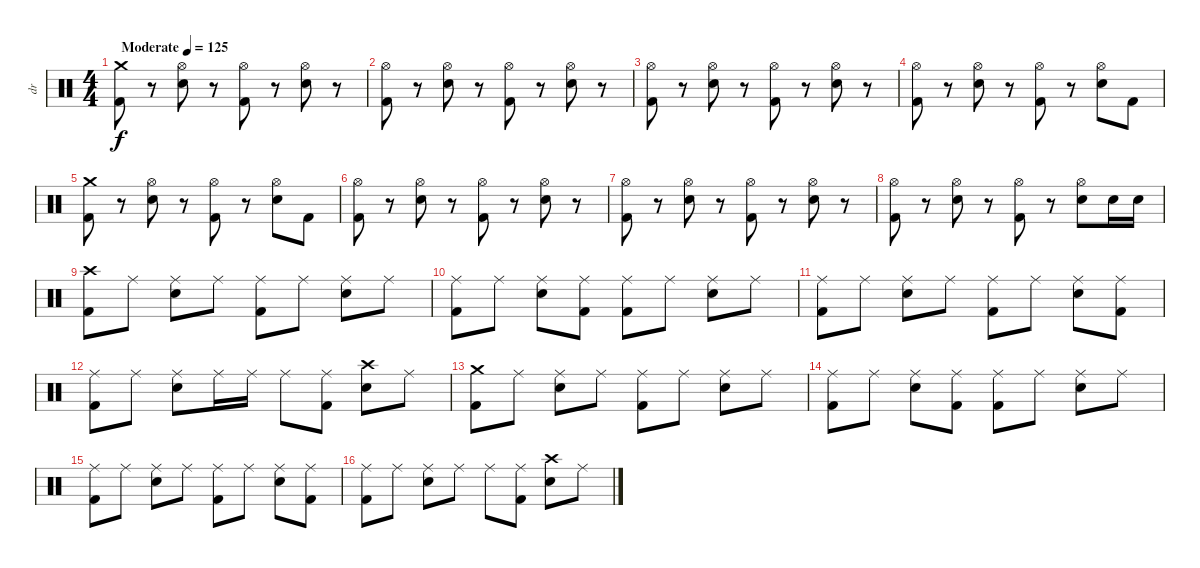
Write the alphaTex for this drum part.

\track ("dr" "dr") {instrument percussion}
\staff {score}
\articulation defaults
\ts (4 4)
\tempo (125 "Moderate")
\clef neutral
\ks c
("Crash medium (hit)" "Kick (hit) 2").8{dy f} r.8 ("Hi-Hat (open)" "Snare (hit) 2").8 r.8 ("Hi-Hat (open)" "Kick (hit) 2").8 r.8 ("Hi-Hat (open)" "Snare (hit) 2").8 r.8 |
("Hi-Hat (open)" "Kick (hit) 2").8 r.8 ("Hi-Hat (open)" "Snare (hit) 2").8 r.8 ("Hi-Hat (open)" "Kick (hit) 2").8 r.8 ("Hi-Hat (open)" "Snare (hit) 2").8 r.8 |
("Hi-Hat (open)" "Kick (hit) 2").8 r.8 ("Hi-Hat (open)" "Snare (hit) 2").8 r.8 ("Hi-Hat (open)" "Kick (hit) 2").8 r.8 ("Hi-Hat (open)" "Snare (hit) 2").8 r.8 |
("Hi-Hat (open)" "Kick (hit) 2").8 r.8 ("Hi-Hat (open)" "Snare (hit) 2").8 r.8 ("Hi-Hat (open)" "Kick (hit) 2").8 r.8 ("Hi-Hat (open)" "Snare (hit) 2").8 "Kick (hit) 2".8 |
("Crash medium (hit)" "Kick (hit) 2").8 r.8 ("Hi-Hat (open)" "Snare (hit) 2").8 r.8 ("Hi-Hat (open)" "Kick (hit) 2").8 r.8 ("Hi-Hat (open)" "Snare (hit) 2").8 "Kick (hit) 2".8 |
("Hi-Hat (open)" "Kick (hit) 2").8 r.8 ("Hi-Hat (open)" "Snare (hit) 2").8 r.8 ("Hi-Hat (open)" "Kick (hit) 2").8 r.8 ("Hi-Hat (open)" "Snare (hit) 2").8 r.8 |
("Hi-Hat (open)" "Kick (hit) 2").8 r.8 ("Hi-Hat (open)" "Snare (hit) 2").8 r.8 ("Hi-Hat (open)" "Kick (hit) 2").8 r.8 ("Hi-Hat (open)" "Snare (hit) 2").8 r.8 |
("Hi-Hat (open)" "Kick (hit) 2").8 r.8 ("Hi-Hat (open)" "Snare (hit) 2").8 r.8 ("Hi-Hat (open)" "Kick (hit) 2").8 r.8 ("Hi-Hat (open)" "Snare (hit) 2").8 "Snare (hit) 2".16 "Snare (hit) 2".16 |
("Crash high (hit)" "Kick (hit) 2").8 "Ride (middle)".8 ("Ride (middle)" "Snare (hit) 2").8 "Ride (middle)".8 ("Ride (middle)" "Kick (hit) 2").8 "Ride (middle)".8 ("Ride (middle)" "Snare (hit) 2").8 "Ride (middle)".8 |
("Ride (middle)" "Kick (hit) 2").8 "Ride (middle)".8 ("Ride (middle)" "Snare (hit) 2").8 ("Ride (middle)" "Kick (hit) 2").8 ("Ride (middle)" "Kick (hit) 2").8 "Ride (middle)".8 ("Ride (middle)" "Snare (hit) 2").8 "Ride (middle)".8 |
("Ride (middle)" "Kick (hit) 2").8 "Ride (middle)".8 ("Ride (middle)" "Snare (hit) 2").8 "Ride (middle)".8 ("Ride (middle)" "Kick (hit) 2").8 "Ride (middle)".8 ("Ride (middle)" "Snare (hit) 2").8 ("Ride (middle)" "Kick (hit) 2").8 |
("Ride (middle)" "Kick (hit) 2").8 "Ride (middle)".8 ("Ride (middle)" "Snare (hit) 2").8 "Ride (middle)".16 "Ride (middle)".16 "Ride (middle)".8 ("Ride (middle)" "Kick (hit) 2").8 ("Crash high (hit)" "Snare (hit) 2").8 "Ride (middle)".8 |
("Crash medium (hit)" "Kick (hit) 2").8 "Ride (middle)".8 ("Ride (middle)" "Snare (hit) 2").8 "Ride (middle)".8 ("Ride (middle)" "Kick (hit) 2").8 "Ride (middle)".8 ("Ride (middle)" "Snare (hit) 2").8 "Ride (middle)".8 |
("Ride (middle)" "Kick (hit) 2").8 "Ride (middle)".8 ("Ride (middle)" "Snare (hit) 2").8 ("Ride (middle)" "Kick (hit) 2").8 ("Ride (middle)" "Kick (hit) 2").8 "Ride (middle)".8 ("Ride (middle)" "Snare (hit) 2").8 "Ride (middle)".8 |
("Ride (middle)" "Kick (hit) 2").8 "Ride (middle)".8 ("Ride (middle)" "Snare (hit) 2").8 "Ride (middle)".8 ("Ride (middle)" "Kick (hit) 2").8 "Ride (middle)".8 ("Ride (middle)" "Snare (hit) 2").8 ("Ride (middle)" "Kick (hit) 2").8 |
("Ride (middle)" "Kick (hit) 2").8 "Ride (middle)".8 ("Ride (middle)" "Snare (hit) 2").8 "Ride (middle)".8 "Ride (middle)".8 ("Ride (middle)" "Kick (hit) 2").8 ("Crash high (hit)" "Snare (hit) 2").8 "Ride (middle)".8
